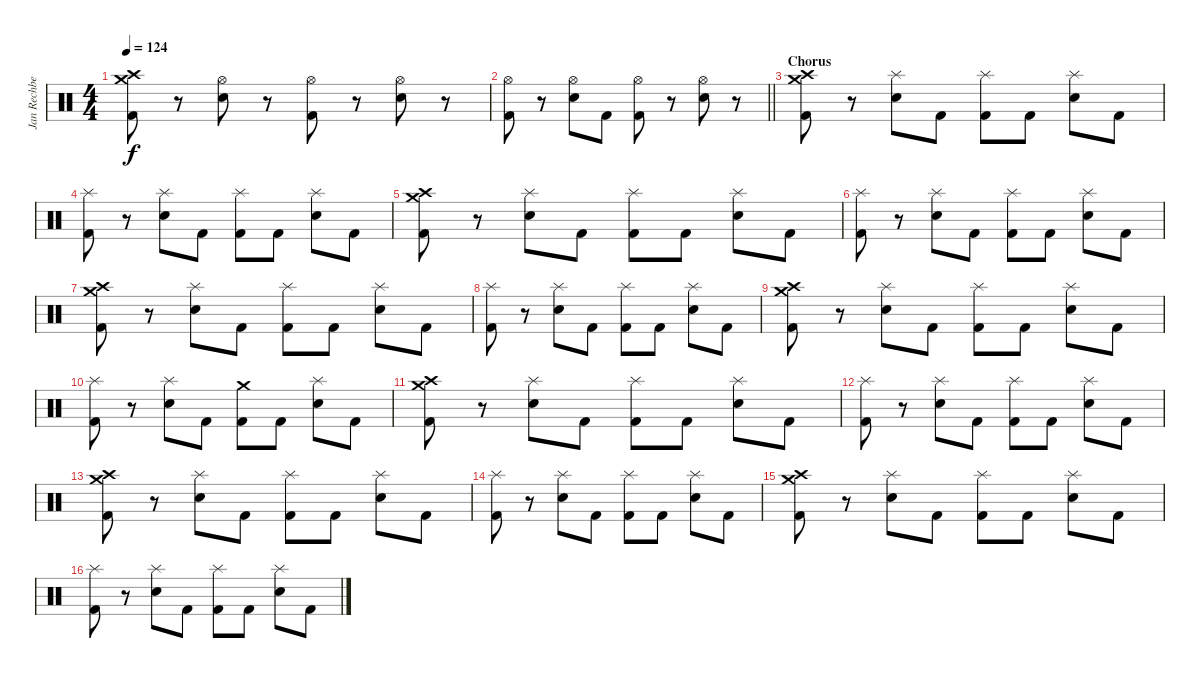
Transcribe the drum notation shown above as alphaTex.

\track ("Jan Rechberger" "Jan Rechbe") {instrument percussion}
\staff {score}
\articulation defaults
\ts (4 4)
\tempo 124
\clef neutral
\ks c
("Crash medium (hit)" "Crash high (hit)" "Kick (hit) 2").8{dy f} r.8 ("Hi-Hat (open)" "Snare (hit) 2").8 r.8 ("Hi-Hat (open)" "Kick (hit) 2").8 r.8 ("Hi-Hat (open)" "Snare (hit) 2").8 r.8 |
\barLineRight lightlight
("Hi-Hat (open)" "Kick (hit) 2").8 r.8 ("Hi-Hat (open)" "Snare (hit) 2").8 "Kick (hit) 2".8 ("Hi-Hat (open)" "Kick (hit) 2").8 r.8 ("Hi-Hat (open)" "Snare (hit) 2").8 r.8 |
\section ("" "Chorus")
("Crash medium (hit)" "Crash high (hit)" "Kick (hit) 2").8 r.8 ("Splash (hit)" "Snare (hit) 2").8 "Kick (hit) 2".8 ("Splash (hit)" "Kick (hit) 2").8 "Kick (hit) 2".8 ("Splash (hit)" "Snare (hit) 2").8 "Kick (hit) 2".8 |
("Splash (hit)" "Kick (hit) 2").8 r.8 ("Splash (hit)" "Snare (hit) 2").8 "Kick (hit) 2".8 ("Splash (hit)" "Kick (hit) 2").8 "Kick (hit) 2".8 ("Splash (hit)" "Snare (hit) 2").8 "Kick (hit) 2".8 |
("Crash medium (hit)" "Crash high (hit)" "Kick (hit) 2").8 r.8 ("Splash (hit)" "Snare (hit) 2").8 "Kick (hit) 2".8 ("Splash (hit)" "Kick (hit) 2").8 "Kick (hit) 2".8 ("Splash (hit)" "Snare (hit) 2").8 "Kick (hit) 2".8 |
("Splash (hit)" "Kick (hit) 2").8 r.8 ("Splash (hit)" "Snare (hit) 2").8 "Kick (hit) 2".8 ("Splash (hit)" "Kick (hit) 2").8 "Kick (hit) 2".8 ("Splash (hit)" "Snare (hit) 2").8 "Kick (hit) 2".8 |
("Crash medium (hit)" "Crash high (hit)" "Kick (hit) 2").8 r.8 ("Splash (hit)" "Snare (hit) 2").8 "Kick (hit) 2".8 ("Splash (hit)" "Kick (hit) 2").8 "Kick (hit) 2".8 ("Splash (hit)" "Snare (hit) 2").8 "Kick (hit) 2".8 |
("Splash (hit)" "Kick (hit) 2").8 r.8 ("Splash (hit)" "Snare (hit) 2").8 "Kick (hit) 2".8 ("Splash (hit)" "Kick (hit) 2").8 "Kick (hit) 2".8 ("Splash (hit)" "Snare (hit) 2").8 "Kick (hit) 2".8 |
("Crash medium (hit)" "Crash high (hit)" "Kick (hit) 2").8 r.8 ("Splash (hit)" "Snare (hit) 2").8 "Kick (hit) 2".8 ("Splash (hit)" "Kick (hit) 2").8 "Kick (hit) 2".8 ("Splash (hit)" "Snare (hit) 2").8 "Kick (hit) 2".8 |
("Splash (hit)" "Kick (hit) 2").8 r.8 ("Splash (hit)" "Snare (hit) 2").8 "Kick (hit) 2".8 ("Crash medium (hit)" "Kick (hit) 2").8 "Kick (hit) 2".8 ("Splash (hit)" "Snare (hit) 2").8 "Kick (hit) 2".8 |
("Crash medium (hit)" "Crash high (hit)" "Kick (hit) 2").8 r.8 ("Splash (hit)" "Snare (hit) 2").8 "Kick (hit) 2".8 ("Splash (hit)" "Kick (hit) 2").8 "Kick (hit) 2".8 ("Splash (hit)" "Snare (hit) 2").8 "Kick (hit) 2".8 |
("Splash (hit)" "Kick (hit) 2").8 r.8 ("Splash (hit)" "Snare (hit) 2").8 "Kick (hit) 2".8 ("Splash (hit)" "Kick (hit) 2").8 "Kick (hit) 2".8 ("Splash (hit)" "Snare (hit) 2").8 "Kick (hit) 2".8 |
("Crash medium (hit)" "Crash high (hit)" "Kick (hit) 2").8 r.8 ("Splash (hit)" "Snare (hit) 2").8 "Kick (hit) 2".8 ("Splash (hit)" "Kick (hit) 2").8 "Kick (hit) 2".8 ("Splash (hit)" "Snare (hit) 2").8 "Kick (hit) 2".8 |
("Splash (hit)" "Kick (hit) 2").8 r.8 ("Splash (hit)" "Snare (hit) 2").8 "Kick (hit) 2".8 ("Splash (hit)" "Kick (hit) 2").8 "Kick (hit) 2".8 ("Splash (hit)" "Snare (hit) 2").8 "Kick (hit) 2".8 |
("Crash medium (hit)" "Crash high (hit)" "Kick (hit) 2").8 r.8 ("Splash (hit)" "Snare (hit) 2").8 "Kick (hit) 2".8 ("Splash (hit)" "Kick (hit) 2").8 "Kick (hit) 2".8 ("Splash (hit)" "Snare (hit) 2").8 "Kick (hit) 2".8 |
("Splash (hit)" "Kick (hit) 2").8 r.8 ("Splash (hit)" "Snare (hit) 2").8 "Kick (hit) 2".8 ("Splash (hit)" "Kick (hit) 2").8 "Kick (hit) 2".8 ("Splash (hit)" "Snare (hit) 2").8 "Kick (hit) 2".8
